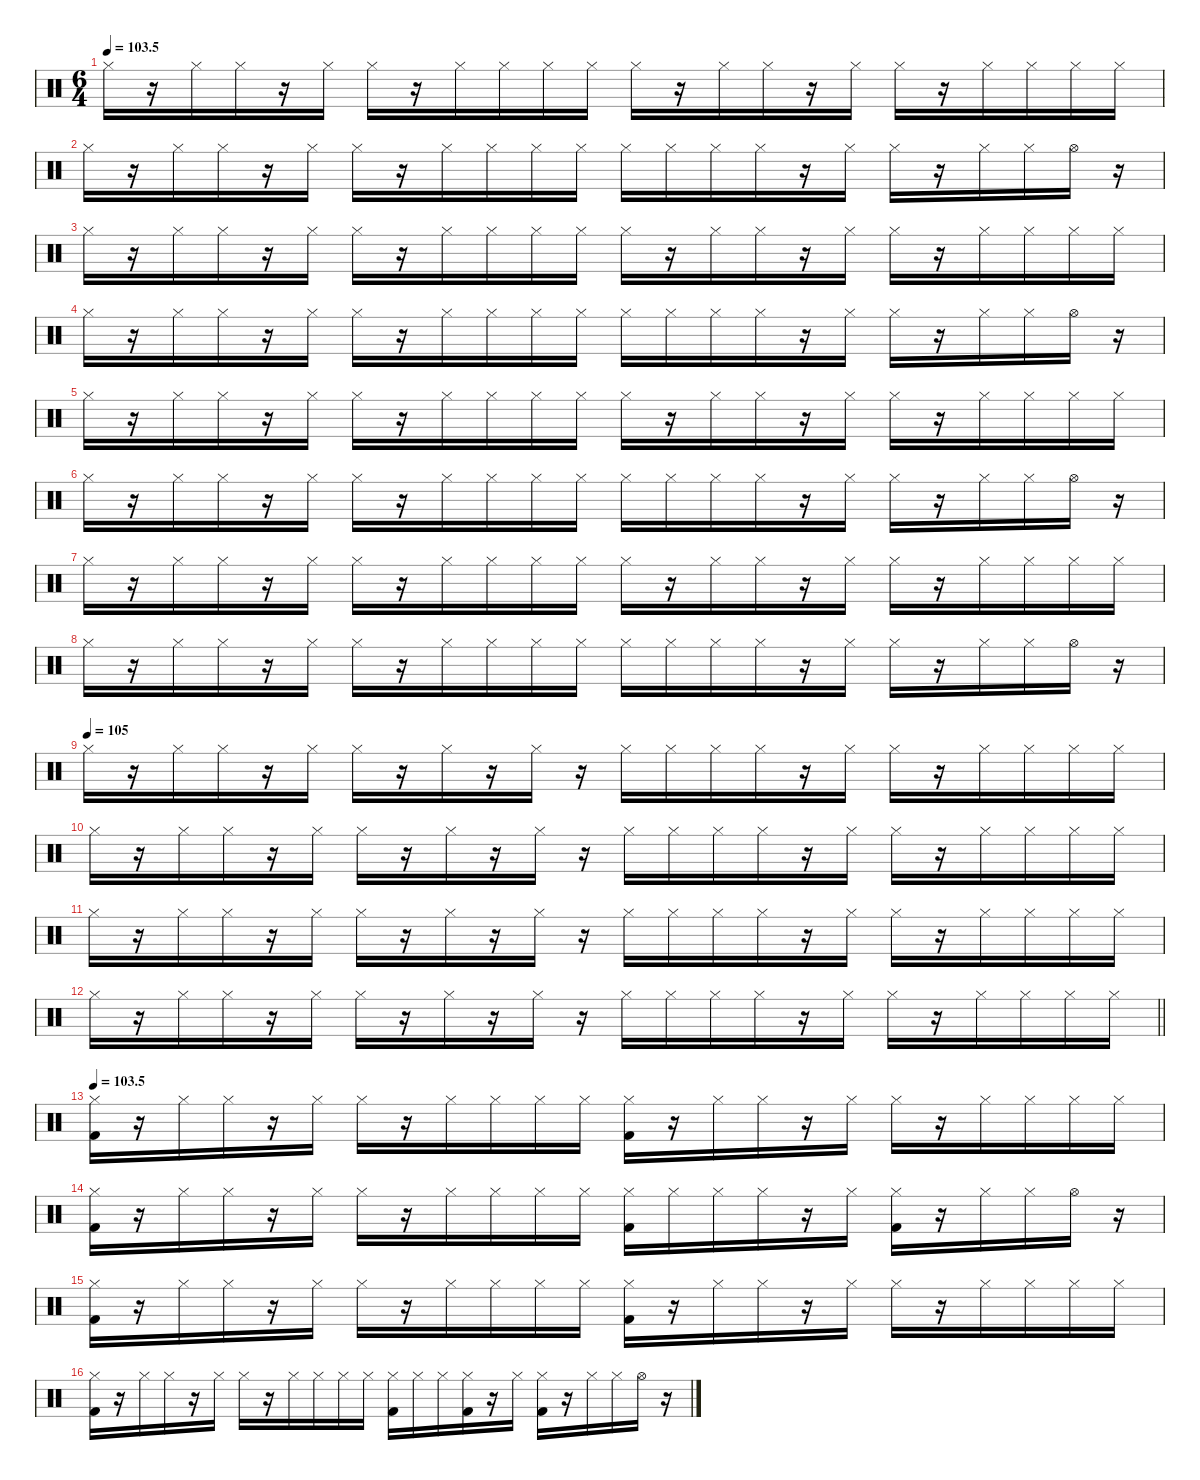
\defaultSystemsLayout 4
\hideDynamics
\bracketExtendMode nobrackets
\singleTrackTrackNamePolicy hidden
\multiTrackTrackNamePolicy hidden
\firstSystemTrackNameMode fullname
\firstSystemTrackNameOrientation horizontal
\otherSystemsTrackNameOrientation horizontal
\track ("Gene Hoglan" "drm.") {instrument percussion}
\staff {score}
\articulation defaults
\ts (6 4)
\beaming (8 3 3 3 3)
\tempo
103.5
\accidentals auto
\clef neutral
\ottava regular
\simile none
\ks c "Hi-Hat (closed)".16{dy f beam Down}
r.16{beam Down} "Hi-Hat (closed)".16{beam Down} "Hi-Hat (closed)".16{beam Down} r.16{beam Down} "Hi-Hat (closed)".16{beam Down} "Hi-Hat (closed)".16{beam Down} r.16{beam Down} "Hi-Hat (closed)".16{beam Down} "Hi-Hat (closed)".16{beam Down} "Hi-Hat (closed)".16{beam Down} "Hi-Hat (closed)".16{beam Down} "Hi-Hat (closed)".16{beam Down} r.16{beam Down} "Hi-Hat (closed)".16{beam Down} "Hi-Hat (closed)".16{beam Down} r.16{beam Down} "Hi-Hat (closed)".16{beam Down} "Hi-Hat (closed)".16{beam Down} r.16{beam Down} "Hi-Hat (closed)".16{beam Down} "Hi-Hat (closed)".16{beam Down} "Hi-Hat (closed)".16{beam Down} "Hi-Hat (closed)".16{beam Down} |
"Hi-Hat (closed)".16{beam Down} r.16{beam Down} "Hi-Hat (closed)".16{beam Down} "Hi-Hat (closed)".16{beam Down} r.16{beam Down} "Hi-Hat (closed)".16{beam Down} "Hi-Hat (closed)".16{beam Down} r.16{beam Down} "Hi-Hat (closed)".16{beam Down} "Hi-Hat (closed)".16{beam Down} "Hi-Hat (closed)".16{beam Down} "Hi-Hat (closed)".16{beam Down} "Hi-Hat (closed)".16{beam Down} "Hi-Hat (closed)".16{beam Down} "Hi-Hat (closed)".16{beam Down} "Hi-Hat (closed)".16{beam Down} r.16{beam Down} "Hi-Hat (closed)".16{beam Down} "Hi-Hat (closed)".16{beam Down} r.16{beam Down} "Hi-Hat (closed)".16{beam Down} "Hi-Hat (closed)".16{beam Down} "Hi-Hat (open)".16{beam Down} r.16{beam Down} |
"Hi-Hat (closed)".16{beam Down} r.16{beam Down} "Hi-Hat (closed)".16{beam Down} "Hi-Hat (closed)".16{beam Down} r.16{beam Down} "Hi-Hat (closed)".16{beam Down} "Hi-Hat (closed)".16{beam Down} r.16{beam Down} "Hi-Hat (closed)".16{beam Down} "Hi-Hat (closed)".16{beam Down} "Hi-Hat (closed)".16{beam Down} "Hi-Hat (closed)".16{beam Down} "Hi-Hat (closed)".16{beam Down} r.16{beam Down} "Hi-Hat (closed)".16{beam Down} "Hi-Hat (closed)".16{beam Down} r.16{beam Down} "Hi-Hat (closed)".16{beam Down} "Hi-Hat (closed)".16{beam Down} r.16{beam Down} "Hi-Hat (closed)".16{beam Down} "Hi-Hat (closed)".16{beam Down} "Hi-Hat (closed)".16{beam Down} "Hi-Hat (closed)".16{beam Down} |
"Hi-Hat (closed)".16{beam Down} r.16{beam Down} "Hi-Hat (closed)".16{beam Down} "Hi-Hat (closed)".16{beam Down} r.16{beam Down} "Hi-Hat (closed)".16{beam Down} "Hi-Hat (closed)".16{beam Down} r.16{beam Down} "Hi-Hat (closed)".16{beam Down} "Hi-Hat (closed)".16{beam Down} "Hi-Hat (closed)".16{beam Down} "Hi-Hat (closed)".16{beam Down} "Hi-Hat (closed)".16{beam Down} "Hi-Hat (closed)".16{beam Down} "Hi-Hat (closed)".16{beam Down} "Hi-Hat (closed)".16{beam Down} r.16{beam Down} "Hi-Hat (closed)".16{beam Down} "Hi-Hat (closed)".16{beam Down} r.16{beam Down} "Hi-Hat (closed)".16{beam Down} "Hi-Hat (closed)".16{beam Down} "Hi-Hat (open)".16{beam Down} r.16{beam Down} |
"Hi-Hat (closed)".16{beam Down} r.16{beam Down} "Hi-Hat (closed)".16{beam Down} "Hi-Hat (closed)".16{beam Down} r.16{beam Down} "Hi-Hat (closed)".16{beam Down} "Hi-Hat (closed)".16{beam Down} r.16{beam Down} "Hi-Hat (closed)".16{beam Down} "Hi-Hat (closed)".16{beam Down} "Hi-Hat (closed)".16{beam Down} "Hi-Hat (closed)".16{beam Down} "Hi-Hat (closed)".16{beam Down} r.16{beam Down} "Hi-Hat (closed)".16{beam Down} "Hi-Hat (closed)".16{beam Down} r.16{beam Down} "Hi-Hat (closed)".16{beam Down} "Hi-Hat (closed)".16{beam Down} r.16{beam Down} "Hi-Hat (closed)".16{beam Down} "Hi-Hat (closed)".16{beam Down} "Hi-Hat (closed)".16{beam Down} "Hi-Hat (closed)".16{beam Down} |
"Hi-Hat (closed)".16{beam Down} r.16{beam Down} "Hi-Hat (closed)".16{beam Down} "Hi-Hat (closed)".16{beam Down} r.16{beam Down} "Hi-Hat (closed)".16{beam Down} "Hi-Hat (closed)".16{beam Down} r.16{beam Down} "Hi-Hat (closed)".16{beam Down} "Hi-Hat (closed)".16{beam Down} "Hi-Hat (closed)".16{beam Down} "Hi-Hat (closed)".16{beam Down} "Hi-Hat (closed)".16{beam Down} "Hi-Hat (closed)".16{beam Down} "Hi-Hat (closed)".16{beam Down} "Hi-Hat (closed)".16{beam Down} r.16{beam Down} "Hi-Hat (closed)".16{beam Down} "Hi-Hat (closed)".16{beam Down} r.16{beam Down} "Hi-Hat (closed)".16{beam Down} "Hi-Hat (closed)".16{beam Down} "Hi-Hat (open)".16{beam Down} r.16{beam Down} |
"Hi-Hat (closed)".16{beam Down} r.16{beam Down} "Hi-Hat (closed)".16{beam Down} "Hi-Hat (closed)".16{beam Down} r.16{beam Down} "Hi-Hat (closed)".16{beam Down} "Hi-Hat (closed)".16{beam Down} r.16{beam Down} "Hi-Hat (closed)".16{beam Down} "Hi-Hat (closed)".16{beam Down} "Hi-Hat (closed)".16{beam Down} "Hi-Hat (closed)".16{beam Down} "Hi-Hat (closed)".16{beam Down} r.16{beam Down} "Hi-Hat (closed)".16{beam Down} "Hi-Hat (closed)".16{beam Down} r.16{beam Down} "Hi-Hat (closed)".16{beam Down} "Hi-Hat (closed)".16{beam Down} r.16{beam Down} "Hi-Hat (closed)".16{beam Down} "Hi-Hat (closed)".16{beam Down} "Hi-Hat (closed)".16{beam Down} "Hi-Hat (closed)".16{beam Down} |
"Hi-Hat (closed)".16{beam Down} r.16{beam Down} "Hi-Hat (closed)".16{beam Down} "Hi-Hat (closed)".16{beam Down} r.16{beam Down} "Hi-Hat (closed)".16{beam Down} "Hi-Hat (closed)".16{beam Down} r.16{beam Down} "Hi-Hat (closed)".16{beam Down} "Hi-Hat (closed)".16{beam Down} "Hi-Hat (closed)".16{beam Down} "Hi-Hat (closed)".16{beam Down} "Hi-Hat (closed)".16{beam Down} "Hi-Hat (closed)".16{beam Down} "Hi-Hat (closed)".16{beam Down} "Hi-Hat (closed)".16{beam Down} r.16{beam Down} "Hi-Hat (closed)".16{beam Down} "Hi-Hat (closed)".16{beam Down} r.16{beam Down} "Hi-Hat (closed)".16{beam Down} "Hi-Hat (closed)".16{beam Down} "Hi-Hat (open)".16{beam Down} r.16{beam Down} |
\tempo (105)
"Hi-Hat (closed)".16{beam Down} r.16{beam Down} "Hi-Hat (closed)".16{beam Down} "Hi-Hat (closed)".16{beam Down} r.16{beam Down} "Hi-Hat (closed)".16{beam Down} "Hi-Hat (closed)".16{beam Down} r.16{beam Down} "Hi-Hat (closed)".16{beam Down} r.16{beam Down} "Hi-Hat (closed)".16{beam Down} r.16{beam Down} "Hi-Hat (closed)".16{beam Down} "Hi-Hat (closed)".16{beam Down} "Hi-Hat (closed)".16{beam Down} "Hi-Hat (closed)".16{beam Down} r.16{beam Down} "Hi-Hat (closed)".16{beam Down} "Hi-Hat (closed)".16{beam Down} r.16{beam Down} "Hi-Hat (closed)".16{beam Down} "Hi-Hat (closed)".16{beam Down} "Hi-Hat (closed)".16{beam Down} "Hi-Hat (closed)".16{beam Down} |
"Hi-Hat (closed)".16{beam Down} r.16{beam Down} "Hi-Hat (closed)".16{beam Down} "Hi-Hat (closed)".16{beam Down} r.16{beam Down} "Hi-Hat (closed)".16{beam Down} "Hi-Hat (closed)".16{beam Down} r.16{beam Down} "Hi-Hat (closed)".16{beam Down} r.16{beam Down} "Hi-Hat (closed)".16{beam Down} r.16{beam Down} "Hi-Hat (closed)".16{beam Down} "Hi-Hat (closed)".16{beam Down} "Hi-Hat (closed)".16{beam Down} "Hi-Hat (closed)".16{beam Down} r.16{beam Down} "Hi-Hat (closed)".16{beam Down} "Hi-Hat (closed)".16{beam Down} r.16{beam Down} "Hi-Hat (closed)".16{beam Down} "Hi-Hat (closed)".16{beam Down} "Hi-Hat (closed)".16{beam Down} "Hi-Hat (closed)".16{beam Down} |
"Hi-Hat (closed)".16{beam Down} r.16{beam Down} "Hi-Hat (closed)".16{beam Down} "Hi-Hat (closed)".16{beam Down} r.16{beam Down} "Hi-Hat (closed)".16{beam Down} "Hi-Hat (closed)".16{beam Down} r.16{beam Down} "Hi-Hat (closed)".16{beam Down} r.16{beam Down} "Hi-Hat (closed)".16{beam Down} r.16{beam Down} "Hi-Hat (closed)".16{beam Down} "Hi-Hat (closed)".16{beam Down} "Hi-Hat (closed)".16{beam Down} "Hi-Hat (closed)".16{beam Down} r.16{beam Down} "Hi-Hat (closed)".16{beam Down} "Hi-Hat (closed)".16{beam Down} r.16{beam Down} "Hi-Hat (closed)".16{beam Down} "Hi-Hat (closed)".16{beam Down} "Hi-Hat (closed)".16{beam Down} "Hi-Hat (closed)".16{beam Down} |
\barLineRight lightlight "Hi-Hat (closed)".16{beam Down}
r.16{beam Down} "Hi-Hat (closed)".16{beam Down} "Hi-Hat (closed)".16{beam Down} r.16{beam Down} "Hi-Hat (closed)".16{beam Down} "Hi-Hat (closed)".16{beam Down} r.16{beam Down} "Hi-Hat (closed)".16{beam Down} r.16{beam Down} "Hi-Hat (closed)".16{beam Down} r.16{beam Down} "Hi-Hat (closed)".16{beam Down} "Hi-Hat (closed)".16{beam Down} "Hi-Hat (closed)".16{beam Down} "Hi-Hat (closed)".16{beam Down} r.16{beam Down} "Hi-Hat (closed)".16{beam Down} "Hi-Hat (closed)".16{beam Down} r.16{beam Down} "Hi-Hat (closed)".16{beam Down} "Hi-Hat (closed)".16{beam Down} "Hi-Hat (closed)".16{beam Down} "Hi-Hat (closed)".16{beam Down} |
\tempo
103.5 ("Hi-Hat (closed)" "Kick (hit) 2").16{beam Down} r.16{beam Down} "Hi-Hat (closed)".16{beam Down} "Hi-Hat (closed)".16{beam Down} r.16{beam Down} "Hi-Hat (closed)".16{beam Down} "Hi-Hat (closed)".16{beam Down} r.16{beam Down} "Hi-Hat (closed)".16{beam Down} "Hi-Hat (closed)".16{beam Down} "Hi-Hat (closed)".16{beam Down} "Hi-Hat (closed)".16{beam Down} ("Hi-Hat (closed)" "Kick (hit) 2").16{beam Down} r.16{beam Down} "Hi-Hat (closed)".16{beam Down} "Hi-Hat (closed)".16{beam Down} r.16{beam Down} "Hi-Hat (closed)".16{beam Down} "Hi-Hat (closed)".16{beam Down} r.16{beam Down} "Hi-Hat (closed)".16{beam Down} "Hi-Hat (closed)".16{beam Down} "Hi-Hat (closed)".16{beam Down} "Hi-Hat (closed)".16{beam Down} |
("Hi-Hat (closed)" "Kick (hit) 2").16{beam Down} r.16{beam Down} "Hi-Hat (closed)".16{beam Down} "Hi-Hat (closed)".16{beam Down} r.16{beam Down} "Hi-Hat (closed)".16{beam Down} "Hi-Hat (closed)".16{beam Down} r.16{beam Down} "Hi-Hat (closed)".16{beam Down} "Hi-Hat (closed)".16{beam Down} "Hi-Hat (closed)".16{beam Down} "Hi-Hat (closed)".16{beam Down} ("Hi-Hat (closed)" "Kick (hit) 2").16{beam Down} "Hi-Hat (closed)".16{beam Down} "Hi-Hat (closed)".16{beam Down} "Hi-Hat (closed)".16{beam Down} r.16{beam Down} "Hi-Hat (closed)".16{beam Down} ("Hi-Hat (closed)" "Kick (hit) 2").16{beam Down} r.16{beam Down} "Hi-Hat (closed)".16{beam Down} "Hi-Hat (closed)".16{beam Down} "Hi-Hat (open)".16{beam Down} r.16{beam Down} |
("Hi-Hat (closed)" "Kick (hit) 2").16{beam Down} r.16{beam Down} "Hi-Hat (closed)".16{beam Down} "Hi-Hat (closed)".16{beam Down} r.16{beam Down} "Hi-Hat (closed)".16{beam Down} "Hi-Hat (closed)".16{beam Down} r.16{beam Down} "Hi-Hat (closed)".16{beam Down} "Hi-Hat (closed)".16{beam Down} "Hi-Hat (closed)".16{beam Down} "Hi-Hat (closed)".16{beam Down} ("Hi-Hat (closed)" "Kick (hit) 2").16{beam Down} r.16{beam Down} "Hi-Hat (closed)".16{beam Down} "Hi-Hat (closed)".16{beam Down} r.16{beam Down} "Hi-Hat (closed)".16{beam Down} "Hi-Hat (closed)".16{beam Down} r.16{beam Down} "Hi-Hat (closed)".16{beam Down} "Hi-Hat (closed)".16{beam Down} "Hi-Hat (closed)".16{beam Down} "Hi-Hat (closed)".16{beam Down} |
("Hi-Hat (closed)" "Kick (hit) 2").16{beam Down} r.16{beam Down} "Hi-Hat (closed)".16{beam Down} "Hi-Hat (closed)".16{beam Down} r.16{beam Down} "Hi-Hat (closed)".16{beam Down} "Hi-Hat (closed)".16{beam Down} r.16{beam Down} "Hi-Hat (closed)".16{beam Down} "Hi-Hat (closed)".16{beam Down} "Hi-Hat (closed)".16{beam Down} "Hi-Hat (closed)".16{beam Down} ("Hi-Hat (closed)" "Kick (hit) 2").16{beam Down} "Hi-Hat (closed)".16{beam Down} "Hi-Hat (closed)".16{beam Down} ("Hi-Hat (closed)" "Kick (hit) 2").16{beam Down} r.16{beam Down} "Hi-Hat (closed)".16{beam Down} ("Hi-Hat (closed)" "Kick (hit) 2").16{beam Down} r.16{beam Down} "Hi-Hat (closed)".16{beam Down} "Hi-Hat (closed)".16{beam Down} "Hi-Hat (open)".16{beam Down} r.16{beam Down}
